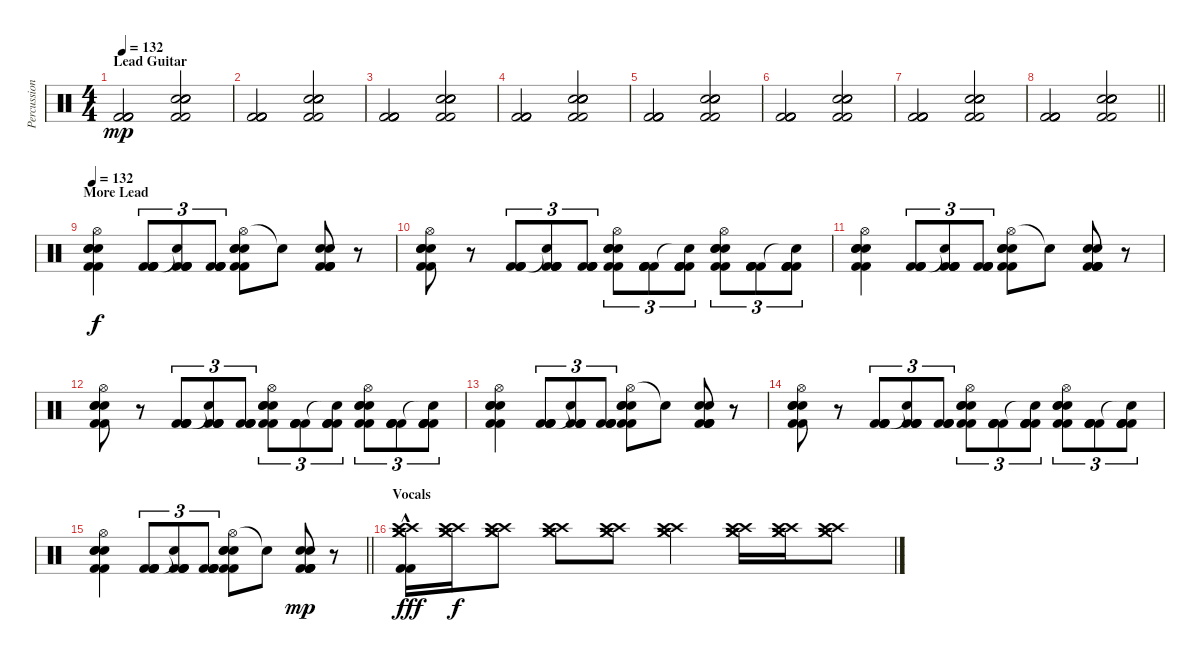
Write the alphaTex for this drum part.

\track ("Percussion" "Percussion") {instrument percussion}
\staff {score}
\articulation defaults
\ts (4 4)
\section ("" "Lead Guitar")
\tempo 132
\clef neutral
\ks c
("Kick (hit) 2" "Kick (hit) 2" "Kick (hit) 2" "Kick (hit) 2").2{dy mp} ("Electric Snare (hit)" "Electric Snare (hit)" "Snare (hit) 2" "Snare (hit) 2" "Kick (hit) 2" "Kick (hit) 2").2 |
("Kick (hit) 2" "Kick (hit) 2" "Kick (hit) 2" "Kick (hit) 2").2 ("Electric Snare (hit)" "Electric Snare (hit)" "Snare (hit) 2" "Snare (hit) 2" "Kick (hit) 2" "Kick (hit) 2").2 |
("Kick (hit) 2" "Kick (hit) 2" "Kick (hit) 2" "Kick (hit) 2").2 ("Electric Snare (hit)" "Electric Snare (hit)" "Snare (hit) 2" "Snare (hit) 2" "Kick (hit) 2" "Kick (hit) 2").2 |
("Kick (hit) 2" "Kick (hit) 2" "Kick (hit) 2" "Kick (hit) 2").2 ("Electric Snare (hit)" "Electric Snare (hit)" "Snare (hit) 2" "Snare (hit) 2" "Kick (hit) 2" "Kick (hit) 2").2 |
("Kick (hit) 2" "Kick (hit) 2" "Kick (hit) 2" "Kick (hit) 2").2 ("Electric Snare (hit)" "Electric Snare (hit)" "Snare (hit) 2" "Snare (hit) 2" "Kick (hit) 2" "Kick (hit) 2").2 |
("Kick (hit) 2" "Kick (hit) 2" "Kick (hit) 2" "Kick (hit) 2").2 ("Electric Snare (hit)" "Electric Snare (hit)" "Snare (hit) 2" "Snare (hit) 2" "Kick (hit) 2" "Kick (hit) 2").2 |
("Kick (hit) 2" "Kick (hit) 2" "Kick (hit) 2" "Kick (hit) 2").2 ("Electric Snare (hit)" "Electric Snare (hit)" "Snare (hit) 2" "Snare (hit) 2" "Kick (hit) 2" "Kick (hit) 2").2 |
\barLineRight lightlight
("Kick (hit) 2" "Kick (hit) 2" "Kick (hit) 2" "Kick (hit) 2").2 ("Electric Snare (hit)" "Electric Snare (hit)" "Snare (hit) 2" "Snare (hit) 2" "Kick (hit) 2" "Kick (hit) 2").2 |
\section ("" "More Lead")
\tempo 132
("Hi-Hat (open)" "Electric Snare (hit)" "Snare (hit) 2" "Snare (hit) 2" "Kick (hit) 2" "Kick (hit) 2").4{dy f} ("Kick (hit) 2" "Kick (hit) 2" "Kick (hit) 2" "Kick (hit) 2").8{tu (3 2)} ("Snare (hit)"{t} "Kick (hit) 2" "Kick (hit) 2" "Kick (hit) 2" "Kick (hit) 2").8{tu (3 2)} ("Kick (hit) 2" "Kick (hit) 2" "Kick (hit) 2" "Kick (hit) 2").8{tu (3 2)} ("Hi-Hat (open)" "Electric Snare (hit)" "Snare (hit) 2" "Snare (hit) 2" "Kick (hit) 2" "Kick (hit) 2").8 "Snare (hit)"{t}.8 ("Kick (hit) 2" "Kick (hit) 2" "Snare (hit) 2" "Snare (hit) 2" "Kick (hit) 2" "Kick (hit) 2").8 r.8 |
("Hi-Hat (open)" "Electric Snare (hit)" "Snare (hit) 2" "Snare (hit) 2" "Kick (hit) 2" "Kick (hit) 2").8 r.8 ("Kick (hit) 2" "Kick (hit) 2" "Kick (hit) 2" "Kick (hit) 2").8{tu (3 2)} ("Snare (hit)"{t} "Kick (hit) 2" "Kick (hit) 2" "Kick (hit) 2" "Kick (hit) 2").8{tu (3 2)} ("Kick (hit) 2" "Kick (hit) 2" "Kick (hit) 2" "Kick (hit) 2").8{tu (3 2)} ("Hi-Hat (open)" "Electric Snare (hit)" "Snare (hit) 2" "Snare (hit) 2" "Kick (hit) 2" "Kick (hit) 2").8{tu (3 2)} ("Kick (hit) 2" "Kick (hit) 2" "Kick (hit) 2" "Kick (hit) 2").8{tu (3 2)} ("Snare (hit)"{t} "Kick (hit) 2" "Kick (hit) 2" "Kick (hit) 2" "Kick (hit) 2").8{tu (3 2)} ("Hi-Hat (open)" "Electric Snare (hit)" "Snare (hit) 2" "Snare (hit) 2" "Kick (hit) 2" "Kick (hit) 2").8{tu (3 2)} ("Kick (hit) 2" "Kick (hit) 2" "Kick (hit) 2" "Kick (hit) 2").8{tu (3 2)} ("Snare (hit)"{t} "Kick (hit) 2" "Kick (hit) 2" "Kick (hit) 2" "Kick (hit) 2").8{tu (3 2)} |
("Hi-Hat (open)" "Electric Snare (hit)" "Snare (hit) 2" "Snare (hit) 2" "Kick (hit) 2" "Kick (hit) 2").4 ("Kick (hit) 2" "Kick (hit) 2" "Kick (hit) 2" "Kick (hit) 2").8{tu (3 2)} ("Snare (hit)"{t} "Kick (hit) 2" "Kick (hit) 2" "Kick (hit) 2" "Kick (hit) 2").8{tu (3 2)} ("Kick (hit) 2" "Kick (hit) 2" "Kick (hit) 2" "Kick (hit) 2").8{tu (3 2)} ("Hi-Hat (open)" "Electric Snare (hit)" "Snare (hit) 2" "Snare (hit) 2" "Kick (hit) 2" "Kick (hit) 2").8 "Snare (hit)"{t}.8 ("Kick (hit) 2" "Kick (hit) 2" "Snare (hit) 2" "Snare (hit) 2" "Kick (hit) 2" "Kick (hit) 2").8 r.8 |
("Hi-Hat (open)" "Electric Snare (hit)" "Snare (hit) 2" "Snare (hit) 2" "Kick (hit) 2" "Kick (hit) 2").8 r.8 ("Kick (hit) 2" "Kick (hit) 2" "Kick (hit) 2" "Kick (hit) 2").8{tu (3 2)} ("Snare (hit)"{t} "Kick (hit) 2" "Kick (hit) 2" "Kick (hit) 2" "Kick (hit) 2").8{tu (3 2)} ("Kick (hit) 2" "Kick (hit) 2" "Kick (hit) 2" "Kick (hit) 2").8{tu (3 2)} ("Hi-Hat (open)" "Electric Snare (hit)" "Snare (hit) 2" "Snare (hit) 2" "Kick (hit) 2" "Kick (hit) 2").8{tu (3 2)} ("Kick (hit) 2" "Kick (hit) 2" "Kick (hit) 2" "Kick (hit) 2").8{tu (3 2)} ("Snare (hit)"{t} "Kick (hit) 2" "Kick (hit) 2" "Kick (hit) 2" "Kick (hit) 2").8{tu (3 2)} ("Hi-Hat (open)" "Electric Snare (hit)" "Snare (hit) 2" "Snare (hit) 2" "Kick (hit) 2" "Kick (hit) 2").8{tu (3 2)} ("Kick (hit) 2" "Kick (hit) 2" "Kick (hit) 2" "Kick (hit) 2").8{tu (3 2)} ("Snare (hit)"{t} "Kick (hit) 2" "Kick (hit) 2" "Kick (hit) 2" "Kick (hit) 2").8{tu (3 2)} |
("Hi-Hat (open)" "Electric Snare (hit)" "Snare (hit) 2" "Snare (hit) 2" "Kick (hit) 2" "Kick (hit) 2").4 ("Kick (hit) 2" "Kick (hit) 2" "Kick (hit) 2" "Kick (hit) 2").8{tu (3 2)} ("Snare (hit)"{t} "Kick (hit) 2" "Kick (hit) 2" "Kick (hit) 2" "Kick (hit) 2").8{tu (3 2)} ("Kick (hit) 2" "Kick (hit) 2" "Kick (hit) 2" "Kick (hit) 2").8{tu (3 2)} ("Hi-Hat (open)" "Electric Snare (hit)" "Snare (hit) 2" "Snare (hit) 2" "Kick (hit) 2" "Kick (hit) 2").8 "Snare (hit)"{t}.8 ("Kick (hit) 2" "Kick (hit) 2" "Snare (hit) 2" "Snare (hit) 2" "Kick (hit) 2" "Kick (hit) 2").8 r.8 |
("Hi-Hat (open)" "Electric Snare (hit)" "Snare (hit) 2" "Snare (hit) 2" "Kick (hit) 2" "Kick (hit) 2").8 r.8 ("Kick (hit) 2" "Kick (hit) 2" "Kick (hit) 2" "Kick (hit) 2").8{tu (3 2)} ("Snare (hit)"{t} "Kick (hit) 2" "Kick (hit) 2" "Kick (hit) 2" "Kick (hit) 2").8{tu (3 2)} ("Kick (hit) 2" "Kick (hit) 2" "Kick (hit) 2" "Kick (hit) 2").8{tu (3 2)} ("Hi-Hat (open)" "Electric Snare (hit)" "Snare (hit) 2" "Snare (hit) 2" "Kick (hit) 2" "Kick (hit) 2").8{tu (3 2)} ("Kick (hit) 2" "Kick (hit) 2" "Kick (hit) 2" "Kick (hit) 2").8{tu (3 2)} ("Snare (hit)"{t} "Kick (hit) 2" "Kick (hit) 2" "Kick (hit) 2" "Kick (hit) 2").8{tu (3 2)} ("Hi-Hat (open)" "Electric Snare (hit)" "Snare (hit) 2" "Snare (hit) 2" "Kick (hit) 2" "Kick (hit) 2").8{tu (3 2)} ("Kick (hit) 2" "Kick (hit) 2" "Kick (hit) 2" "Kick (hit) 2").8{tu (3 2)} ("Snare (hit)"{t} "Kick (hit) 2" "Kick (hit) 2" "Kick (hit) 2" "Kick (hit) 2").8{tu (3 2)} |
\barLineRight lightlight
("Hi-Hat (open)" "Electric Snare (hit)" "Snare (hit) 2" "Snare (hit) 2" "Kick (hit) 2" "Kick (hit) 2").4 ("Kick (hit) 2" "Kick (hit) 2" "Kick (hit) 2" "Kick (hit) 2").8{tu (3 2)} ("Snare (hit)"{t} "Kick (hit) 2" "Kick (hit) 2" "Kick (hit) 2" "Kick (hit) 2").8{tu (3 2)} ("Kick (hit) 2" "Kick (hit) 2" "Kick (hit) 2" "Kick (hit) 2").8{tu (3 2)} ("Hi-Hat (open)" "Electric Snare (hit)" "Snare (hit) 2" "Snare (hit) 2" "Kick (hit) 2" "Kick (hit) 2").8 "Snare (hit)"{t}.8 ("Kick (hit) 2" "Kick (hit) 2" "Snare (hit) 2" "Snare (hit) 2" "Kick (hit) 2" "Kick (hit) 2").8{dy mp} r.8 |
\section ("" "Vocals")
("Kick (hit) 2"{hac} "Crash high (hit)"{hac} "Crash high (hit)"{hac} "Crash medium (hit)"{hac} "Crash medium (hit)"{hac} "Kick (hit) 2"{hac}).16{dy fff} ("Crash high (hit)" "Crash high (hit)" "Crash medium (hit)" "Crash medium (hit)").16{dy f} ("Crash high (hit)" "Crash high (hit)" "Crash medium (hit)" "Crash medium (hit)").8 ("Crash high (hit)" "Crash high (hit)" "Crash medium (hit)" "Crash medium (hit)").8 ("Crash high (hit)" "Crash high (hit)" "Crash medium (hit)" "Crash medium (hit)").8 ("Crash high (hit)" "Crash high (hit)" "Crash medium (hit)" "Crash medium (hit)").4 ("Crash high (hit)" "Crash high (hit)" "Crash medium (hit)" "Crash medium (hit)").16 ("Crash high (hit)" "Crash high (hit)" "Crash medium (hit)" "Crash medium (hit)").16 ("Crash high (hit)" "Crash high (hit)" "Crash medium (hit)" "Crash medium (hit)").8
